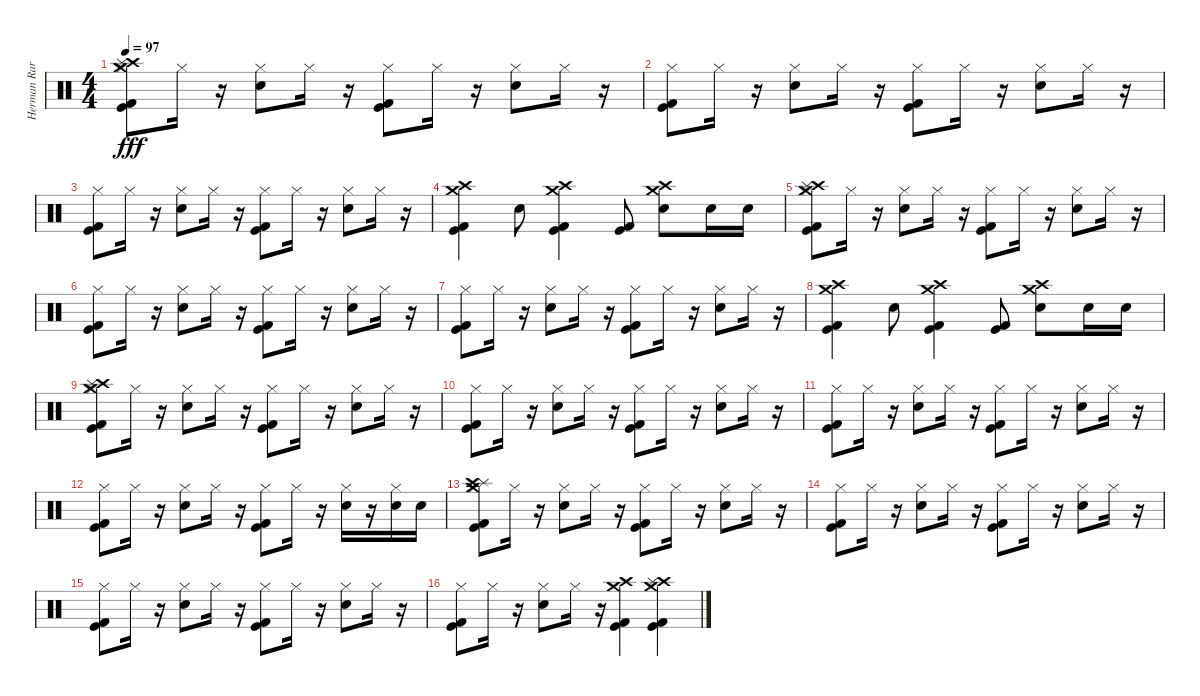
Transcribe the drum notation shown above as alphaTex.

\track ("Herman Rarebell - Drums and Percussion" "Herman Rar") {instrument percussion}
\staff {score}
\articulation defaults
\ts (4 4)
\tempo 97
\clef neutral
\ks c
("Hi-Hat (closed)" "Crash high (hit)" "Splash (hit)" "Crash medium (hit)" "Kick (hit)" "Kick (hit) 2").8{dy fff} "Hi-Hat (closed)".16 r.16 ("Snare (hit) 2" "Hi-Hat (closed)").8 "Hi-Hat (closed)".16 r.16 ("Kick (hit) 2" "Kick (hit)" "Hi-Hat (closed)").8 "Hi-Hat (closed)".16 r.16 ("Snare (hit) 2" "Hi-Hat (closed)").8 "Hi-Hat (closed)".16 r.16 |
("Hi-Hat (closed)" "Kick (hit)" "Kick (hit) 2").8 "Hi-Hat (closed)".16 r.16 ("Snare (hit) 2" "Hi-Hat (closed)").8 "Hi-Hat (closed)".16 r.16 ("Kick (hit) 2" "Kick (hit)" "Hi-Hat (closed)").8 "Hi-Hat (closed)".16 r.16 ("Snare (hit) 2" "Hi-Hat (closed)").8 "Hi-Hat (closed)".16 r.16 |
("Hi-Hat (closed)" "Kick (hit)" "Kick (hit) 2").8 "Hi-Hat (closed)".16 r.16 ("Snare (hit) 2" "Hi-Hat (closed)").8 "Hi-Hat (closed)".16 r.16 ("Kick (hit) 2" "Kick (hit)" "Hi-Hat (closed)").8 "Hi-Hat (closed)".16 r.16 ("Snare (hit) 2" "Hi-Hat (closed)").8 "Hi-Hat (closed)".16 r.16 |
("Crash medium (hit)" "Crash high (hit)" "Kick (hit)" "Kick (hit) 2").4 "Snare (hit) 2".8 ("Crash medium (hit)" "Crash high (hit)" "Kick (hit)" "Kick (hit) 2").4 ("Kick (hit)" "Kick (hit) 2").8 ("Crash medium (hit)" "Crash high (hit)" "Snare (hit) 2").8 "Snare (hit) 2".16 "Snare (hit) 2".16 |
("Hi-Hat (closed)" "Crash high (hit)" "Splash (hit)" "Crash medium (hit)" "Kick (hit)" "Kick (hit) 2").8 "Hi-Hat (closed)".16 r.16 ("Snare (hit) 2" "Hi-Hat (closed)").8 "Hi-Hat (closed)".16 r.16 ("Kick (hit) 2" "Kick (hit)" "Hi-Hat (closed)").8 "Hi-Hat (closed)".16 r.16 ("Snare (hit) 2" "Hi-Hat (closed)").8 "Hi-Hat (closed)".16 r.16 |
("Hi-Hat (closed)" "Kick (hit)" "Kick (hit) 2").8 "Hi-Hat (closed)".16 r.16 ("Snare (hit) 2" "Hi-Hat (closed)").8 "Hi-Hat (closed)".16 r.16 ("Kick (hit) 2" "Kick (hit)" "Hi-Hat (closed)").8 "Hi-Hat (closed)".16 r.16 ("Snare (hit) 2" "Hi-Hat (closed)").8 "Hi-Hat (closed)".16 r.16 |
("Hi-Hat (closed)" "Kick (hit)" "Kick (hit) 2").8 "Hi-Hat (closed)".16 r.16 ("Snare (hit) 2" "Hi-Hat (closed)").8 "Hi-Hat (closed)".16 r.16 ("Kick (hit) 2" "Kick (hit)" "Hi-Hat (closed)").8 "Hi-Hat (closed)".16 r.16 ("Snare (hit) 2" "Hi-Hat (closed)").8 "Hi-Hat (closed)".16 r.16 |
("Kick (hit) 2" "Kick (hit)" "Crash high (hit)" "Crash medium (hit)").4 "Snare (hit) 2".8 ("Crash medium (hit)" "Crash high (hit)" "Kick (hit)" "Kick (hit) 2").4 ("Kick (hit)" "Kick (hit) 2").8 ("Crash medium (hit)" "Crash high (hit)" "Snare (hit) 2").8 "Snare (hit) 2".16 "Snare (hit) 2".16 |
("Hi-Hat (closed)" "Crash high (hit)" "Splash (hit)" "Crash medium (hit)" "Kick (hit)" "Kick (hit) 2").8 "Hi-Hat (closed)".16 r.16 ("Snare (hit) 2" "Hi-Hat (closed)").8 "Hi-Hat (closed)".16 r.16 ("Kick (hit) 2" "Kick (hit)" "Hi-Hat (closed)").8 "Hi-Hat (closed)".16 r.16 ("Snare (hit) 2" "Hi-Hat (closed)").8 "Hi-Hat (closed)".16 r.16 |
("Hi-Hat (closed)" "Kick (hit)" "Kick (hit) 2").8 "Hi-Hat (closed)".16 r.16 ("Snare (hit) 2" "Hi-Hat (closed)").8 "Hi-Hat (closed)".16 r.16 ("Kick (hit) 2" "Kick (hit)" "Hi-Hat (closed)").8 "Hi-Hat (closed)".16 r.16 ("Snare (hit) 2" "Hi-Hat (closed)").8 "Hi-Hat (closed)".16 r.16 |
("Hi-Hat (closed)" "Kick (hit)" "Kick (hit) 2").8 "Hi-Hat (closed)".16 r.16 ("Snare (hit) 2" "Hi-Hat (closed)").8 "Hi-Hat (closed)".16 r.16 ("Kick (hit) 2" "Kick (hit)" "Hi-Hat (closed)").8 "Hi-Hat (closed)".16 r.16 ("Snare (hit) 2" "Hi-Hat (closed)").8 "Hi-Hat (closed)".16 r.16 |
("Hi-Hat (closed)" "Kick (hit)" "Kick (hit) 2").8 "Hi-Hat (closed)".16 r.16 ("Snare (hit) 2" "Hi-Hat (closed)").8 "Hi-Hat (closed)".16 r.16 ("Kick (hit) 2" "Kick (hit)" "Hi-Hat (closed)").8 "Hi-Hat (closed)".16 r.16 ("Hi-Hat (closed)" "Snare (hit) 2").16 r.16 ("Hi-Hat (closed)" "Snare (hit) 2").16 "Snare (hit) 2".16 |
("Kick (hit) 2" "Kick (hit)" "Crash medium (hit)" "Splash (hit)" "Crash high (hit)" "Hi-Hat (closed)").8 "Hi-Hat (closed)".16 r.16 ("Snare (hit) 2" "Hi-Hat (closed)").8 "Hi-Hat (closed)".16 r.16 ("Kick (hit) 2" "Kick (hit)" "Hi-Hat (closed)").8 "Hi-Hat (closed)".16 r.16 ("Snare (hit) 2" "Hi-Hat (closed)").8 "Hi-Hat (closed)".16 r.16 |
("Hi-Hat (closed)" "Kick (hit)" "Kick (hit) 2").8 "Hi-Hat (closed)".16 r.16 ("Snare (hit) 2" "Hi-Hat (closed)").8 "Hi-Hat (closed)".16 r.16 ("Kick (hit) 2" "Kick (hit)" "Hi-Hat (closed)").8 "Hi-Hat (closed)".16 r.16 ("Snare (hit) 2" "Hi-Hat (closed)").8 "Hi-Hat (closed)".16 r.16 |
("Hi-Hat (closed)" "Kick (hit)" "Kick (hit) 2").8 "Hi-Hat (closed)".16 r.16 ("Snare (hit) 2" "Hi-Hat (closed)").8 "Hi-Hat (closed)".16 r.16 ("Kick (hit) 2" "Kick (hit)" "Hi-Hat (closed)").8 "Hi-Hat (closed)".16 r.16 ("Snare (hit) 2" "Hi-Hat (closed)").8 "Hi-Hat (closed)".16 r.16 |
("Hi-Hat (closed)" "Kick (hit)" "Kick (hit) 2").8 "Hi-Hat (closed)".16 r.16 ("Hi-Hat (closed)" "Snare (hit) 2").8 "Hi-Hat (closed)".16 r.16 ("Kick (hit) 2" "Kick (hit)" "Crash high (hit)" "Crash medium (hit)").4 ("Kick (hit) 2" "Kick (hit)" "Crash high (hit)" "Crash medium (hit)" "Splash (hit)").4
